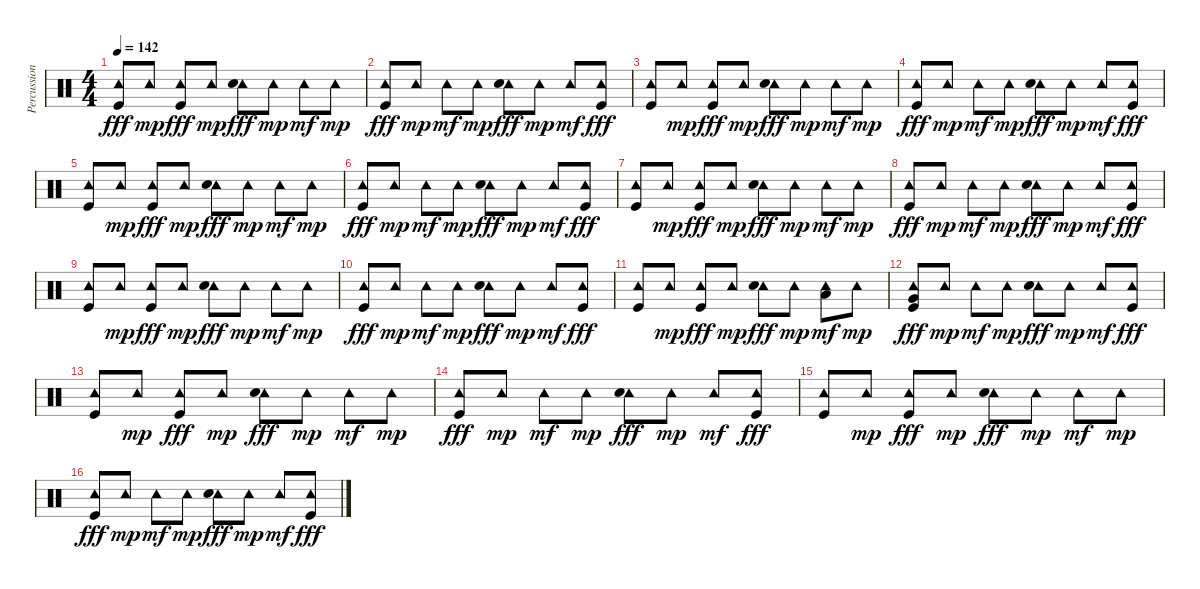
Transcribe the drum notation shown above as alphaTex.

\track ("Percussion" "Percussion") {instrument percussion}
\staff {score}
\articulation defaults
\ts (4 4)
\tempo 142
\clef neutral
\ks c
("Tambourine (hit)" "Kick (hit)").8{dy fff} "Tambourine (hit)".8{dy mp} ("Tambourine (hit)" "Kick (hit)").8{dy fff} "Tambourine (hit)".8{dy mp} ("Tambourine (hit)" "Electric Snare (hit)").8{dy fff} "Tambourine (hit)".8{dy mp} "Tambourine (hit)".8{dy mf} "Tambourine (hit)".8{dy mp} |
("Tambourine (hit)" "Kick (hit)").8{dy fff} "Tambourine (hit)".8{dy mp} "Tambourine (hit)".8{dy mf} "Tambourine (hit)".8{dy mp} ("Tambourine (hit)" "Electric Snare (hit)").8{dy fff} "Tambourine (hit)".8{dy mp} "Tambourine (hit)".8{dy mf} ("Tambourine (hit)" "Kick (hit)").8{dy fff} |
("Tambourine (hit)" "Kick (hit)").8 "Tambourine (hit)".8{dy mp} ("Tambourine (hit)" "Kick (hit)").8{dy fff} "Tambourine (hit)".8{dy mp} ("Tambourine (hit)" "Electric Snare (hit)").8{dy fff} "Tambourine (hit)".8{dy mp} "Tambourine (hit)".8{dy mf} "Tambourine (hit)".8{dy mp} |
("Tambourine (hit)" "Kick (hit)").8{dy fff} "Tambourine (hit)".8{dy mp} "Tambourine (hit)".8{dy mf} "Tambourine (hit)".8{dy mp} ("Tambourine (hit)" "Electric Snare (hit)").8{dy fff} "Tambourine (hit)".8{dy mp} "Tambourine (hit)".8{dy mf} ("Tambourine (hit)" "Kick (hit)").8{dy fff} |
("Tambourine (hit)" "Kick (hit)").8 "Tambourine (hit)".8{dy mp} ("Tambourine (hit)" "Kick (hit)").8{dy fff} "Tambourine (hit)".8{dy mp} ("Tambourine (hit)" "Electric Snare (hit)").8{dy fff} "Tambourine (hit)".8{dy mp} "Tambourine (hit)".8{dy mf} "Tambourine (hit)".8{dy mp} |
("Tambourine (hit)" "Kick (hit)").8{dy fff} "Tambourine (hit)".8{dy mp} "Tambourine (hit)".8{dy mf} "Tambourine (hit)".8{dy mp} ("Tambourine (hit)" "Electric Snare (hit)").8{dy fff} "Tambourine (hit)".8{dy mp} "Tambourine (hit)".8{dy mf} ("Tambourine (hit)" "Kick (hit)").8{dy fff} |
("Tambourine (hit)" "Kick (hit)").8 "Tambourine (hit)".8{dy mp} ("Tambourine (hit)" "Kick (hit)").8{dy fff} "Tambourine (hit)".8{dy mp} ("Tambourine (hit)" "Electric Snare (hit)").8{dy fff} "Tambourine (hit)".8{dy mp} "Tambourine (hit)".8{dy mf} "Tambourine (hit)".8{dy mp} |
("Tambourine (hit)" "Kick (hit)").8{dy fff} "Tambourine (hit)".8{dy mp} "Tambourine (hit)".8{dy mf} "Tambourine (hit)".8{dy mp} ("Tambourine (hit)" "Electric Snare (hit)").8{dy fff} "Tambourine (hit)".8{dy mp} "Tambourine (hit)".8{dy mf} ("Tambourine (hit)" "Kick (hit)").8{dy fff} |
("Tambourine (hit)" "Kick (hit)").8 "Tambourine (hit)".8{dy mp} ("Tambourine (hit)" "Kick (hit)").8{dy fff} "Tambourine (hit)".8{dy mp} ("Tambourine (hit)" "Electric Snare (hit)").8{dy fff} "Tambourine (hit)".8{dy mp} "Tambourine (hit)".8{dy mf} "Tambourine (hit)".8{dy mp} |
("Tambourine (hit)" "Kick (hit)").8{dy fff} "Tambourine (hit)".8{dy mp} "Tambourine (hit)".8{dy mf} "Tambourine (hit)".8{dy mp} ("Tambourine (hit)" "Electric Snare (hit)").8{dy fff} "Tambourine (hit)".8{dy mp} "Tambourine (hit)".8{dy mf} ("Tambourine (hit)" "Kick (hit)").8{dy fff} |
("Tambourine (hit)" "Kick (hit)").8 "Tambourine (hit)".8{dy mp} ("Tambourine (hit)" "Kick (hit)").8{dy fff} "Tambourine (hit)".8{dy mp} ("Tambourine (hit)" "Electric Snare (hit)").8{dy fff} "Tambourine (hit)".8{dy mp} ("Low Floor Tom (hit)" "Tambourine (hit)").8{dy mf} "Tambourine (hit)".8{dy mp} |
("Very Low Tom (hit)" "Tambourine (hit)" "Kick (hit)").8{dy fff} "Tambourine (hit)".8{dy mp} "Tambourine (hit)".8{dy mf} "Tambourine (hit)".8{dy mp} ("Tambourine (hit)" "Electric Snare (hit)").8{dy fff} "Tambourine (hit)".8{dy mp} "Tambourine (hit)".8{dy mf} ("Tambourine (hit)" "Kick (hit)").8{dy fff} |
("Tambourine (hit)" "Kick (hit)").8 "Tambourine (hit)".8{dy mp} ("Tambourine (hit)" "Kick (hit)").8{dy fff} "Tambourine (hit)".8{dy mp} ("Tambourine (hit)" "Electric Snare (hit)").8{dy fff} "Tambourine (hit)".8{dy mp} "Tambourine (hit)".8{dy mf} "Tambourine (hit)".8{dy mp} |
("Tambourine (hit)" "Kick (hit)").8{dy fff} "Tambourine (hit)".8{dy mp} "Tambourine (hit)".8{dy mf} "Tambourine (hit)".8{dy mp} ("Tambourine (hit)" "Electric Snare (hit)").8{dy fff} "Tambourine (hit)".8{dy mp} "Tambourine (hit)".8{dy mf} ("Tambourine (hit)" "Kick (hit)").8{dy fff} |
("Tambourine (hit)" "Kick (hit)").8 "Tambourine (hit)".8{dy mp} ("Tambourine (hit)" "Kick (hit)").8{dy fff} "Tambourine (hit)".8{dy mp} ("Tambourine (hit)" "Electric Snare (hit)").8{dy fff} "Tambourine (hit)".8{dy mp} "Tambourine (hit)".8{dy mf} "Tambourine (hit)".8{dy mp} |
("Tambourine (hit)" "Kick (hit)").8{dy fff} "Tambourine (hit)".8{dy mp} "Tambourine (hit)".8{dy mf} "Tambourine (hit)".8{dy mp} ("Tambourine (hit)" "Electric Snare (hit)").8{dy fff} "Tambourine (hit)".8{dy mp} "Tambourine (hit)".8{dy mf} ("Tambourine (hit)" "Kick (hit)").8{dy fff}
